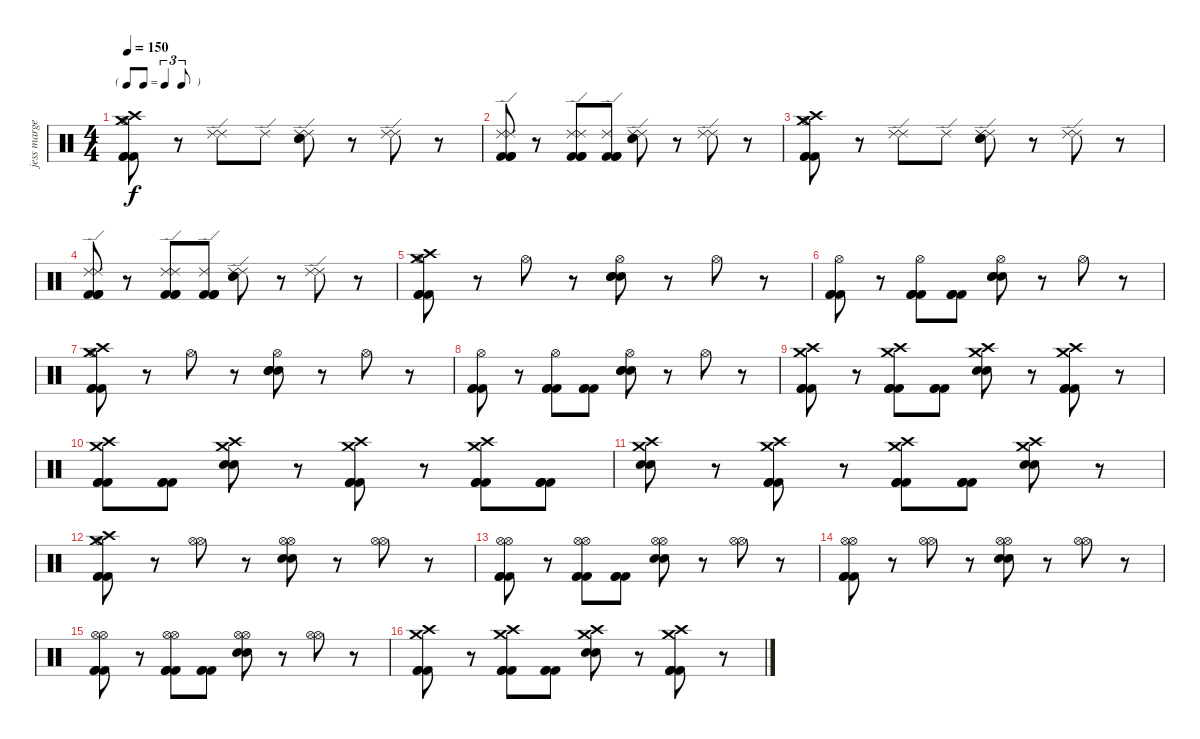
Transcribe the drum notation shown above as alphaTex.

\track ("jess margera" "jess marge") {instrument percussion}
\staff {score}
\articulation defaults
\ts (4 4)
\tf triplet8th
\tempo 150
\clef neutral
\ks c
("Hi-Hat (open)" "Crash high (hit)" "Crash medium (hit)" "Kick (hit) 2" "Kick (hit) 2" "Kick (hit) 2").8{dy f} r.8 ("Ride (edge) 2" "Ride (edge) 2").8 "Ride (edge) 2".8 ("Ride (edge) 2" "Ride (edge) 2" "Electric Snare (hit)" "Electric Snare (hit)").8 r.8 ("Ride (edge) 2" "Ride (edge) 2").8 r.8 |
("Ride (edge) 2" "Ride (edge) 2" "Kick (hit) 2" "Kick (hit) 2" "Kick (hit) 2").8 r.8 ("Ride (edge) 2" "Ride (edge) 2" "Kick (hit) 2" "Kick (hit) 2" "Kick (hit) 2").8 ("Ride (edge) 2" "Kick (hit) 2" "Kick (hit) 2" "Kick (hit) 2").8 ("Ride (edge) 2" "Ride (edge) 2" "Electric Snare (hit)" "Electric Snare (hit)").8 r.8 ("Ride (edge) 2" "Ride (edge) 2").8 r.8 |
("Hi-Hat (open)" "Crash high (hit)" "Crash medium (hit)" "Kick (hit) 2" "Kick (hit) 2" "Kick (hit) 2").8 r.8 ("Ride (edge) 2" "Ride (edge) 2").8 "Ride (edge) 2".8 ("Ride (edge) 2" "Ride (edge) 2" "Electric Snare (hit)" "Electric Snare (hit)").8 r.8 ("Ride (edge) 2" "Ride (edge) 2").8 r.8 |
("Ride (edge) 2" "Ride (edge) 2" "Kick (hit) 2" "Kick (hit) 2" "Kick (hit) 2").8 r.8 ("Ride (edge) 2" "Ride (edge) 2" "Kick (hit) 2" "Kick (hit) 2" "Kick (hit) 2").8 ("Ride (edge) 2" "Kick (hit) 2" "Kick (hit) 2" "Kick (hit) 2").8 ("Ride (edge) 2" "Ride (edge) 2" "Electric Snare (hit)" "Electric Snare (hit)").8 r.8 ("Ride (edge) 2" "Ride (edge) 2").8 r.8 |
("Hi-Hat (open)" "Crash medium (hit)" "Crash high (hit)" "Kick (hit) 2" "Kick (hit) 2" "Kick (hit) 2").8 r.8 "Hi-Hat (open)".8 r.8 ("Hi-Hat (open)" "Electric Snare (hit)" "Electric Snare (hit)" "Electric Snare (hit)").8 r.8 "Hi-Hat (open)".8 r.8 |
("Hi-Hat (open)" "Kick (hit) 2" "Kick (hit) 2" "Kick (hit) 2").8 r.8 ("Hi-Hat (open)" "Kick (hit) 2" "Kick (hit) 2" "Kick (hit) 2").8 ("Kick (hit) 2" "Kick (hit) 2" "Kick (hit) 2").8 ("Hi-Hat (open)" "Electric Snare (hit)" "Electric Snare (hit)" "Electric Snare (hit)").8 r.8 "Hi-Hat (open)".8 r.8 |
("Hi-Hat (open)" "Crash medium (hit)" "Crash high (hit)" "Kick (hit) 2" "Kick (hit) 2" "Kick (hit) 2").8 r.8 "Hi-Hat (open)".8 r.8 ("Hi-Hat (open)" "Electric Snare (hit)" "Electric Snare (hit)" "Electric Snare (hit)").8 r.8 "Hi-Hat (open)".8 r.8 |
("Hi-Hat (open)" "Kick (hit) 2" "Kick (hit) 2" "Kick (hit) 2").8 r.8 ("Hi-Hat (open)" "Kick (hit) 2" "Kick (hit) 2" "Kick (hit) 2").8 ("Kick (hit) 2" "Kick (hit) 2" "Kick (hit) 2").8 ("Hi-Hat (open)" "Electric Snare (hit)" "Electric Snare (hit)" "Electric Snare (hit)").8 r.8 "Hi-Hat (open)".8 r.8 |
("Crash high (hit)" "Crash medium (hit)" "Kick (hit) 2" "Kick (hit) 2" "Kick (hit) 2").8 r.8 ("Crash high (hit)" "Crash medium (hit)" "Kick (hit) 2" "Kick (hit) 2" "Kick (hit) 2").8 ("Kick (hit) 2" "Kick (hit) 2" "Kick (hit) 2").8 ("Crash high (hit)" "Crash medium (hit)" "Electric Snare (hit)" "Electric Snare (hit)").8 r.8 ("Crash high (hit)" "Crash medium (hit)" "Kick (hit) 2" "Kick (hit) 2" "Kick (hit) 2").8 r.8 |
("Crash high (hit)" "Crash medium (hit)" "Kick (hit) 2" "Kick (hit) 2" "Kick (hit) 2").8 ("Kick (hit) 2" "Kick (hit) 2" "Kick (hit) 2").8 ("Crash high (hit)" "Crash medium (hit)" "Electric Snare (hit)" "Electric Snare (hit)").8 r.8 ("Crash high (hit)" "Crash medium (hit)" "Kick (hit) 2" "Kick (hit) 2" "Kick (hit) 2").8 r.8 ("Crash high (hit)" "Crash medium (hit)" "Kick (hit) 2" "Kick (hit) 2" "Kick (hit) 2").8 ("Kick (hit) 2" "Kick (hit) 2" "Kick (hit) 2").8 |
("Crash high (hit)" "Crash medium (hit)" "Electric Snare (hit)" "Electric Snare (hit)").8 r.8 ("Crash high (hit)" "Crash medium (hit)" "Kick (hit) 2" "Kick (hit) 2" "Kick (hit) 2").8 r.8 ("Crash high (hit)" "Crash medium (hit)" "Kick (hit) 2" "Kick (hit) 2" "Kick (hit) 2").8 ("Kick (hit) 2" "Kick (hit) 2" "Kick (hit) 2").8 ("Crash high (hit)" "Crash medium (hit)" "Electric Snare (hit)" "Electric Snare (hit)").8 r.8 |
("Hi-Hat (open)" "Crash high (hit)" "Crash medium (hit)" "Kick (hit) 2" "Kick (hit) 2" "Kick (hit) 2").8 r.8 ("Hi-Hat (open)" "Hi-Hat (open)").8 r.8 ("Hi-Hat (open)" "Hi-Hat (open)" "Electric Snare (hit)" "Electric Snare (hit)").8 r.8 ("Hi-Hat (open)" "Hi-Hat (open)").8 r.8 |
("Hi-Hat (open)" "Hi-Hat (open)" "Kick (hit) 2" "Kick (hit) 2" "Kick (hit) 2").8 r.8 ("Hi-Hat (open)" "Hi-Hat (open)" "Kick (hit) 2" "Kick (hit) 2" "Kick (hit) 2").8 ("Kick (hit) 2" "Kick (hit) 2" "Kick (hit) 2").8 ("Hi-Hat (open)" "Hi-Hat (open)" "Electric Snare (hit)" "Electric Snare (hit)").8 r.8 ("Hi-Hat (open)" "Hi-Hat (open)").8 r.8 |
("Hi-Hat (open)" "Hi-Hat (open)" "Kick (hit) 2" "Kick (hit) 2" "Kick (hit) 2").8 r.8 ("Hi-Hat (open)" "Hi-Hat (open)").8 r.8 ("Hi-Hat (open)" "Hi-Hat (open)" "Electric Snare (hit)" "Electric Snare (hit)").8 r.8 ("Hi-Hat (open)" "Hi-Hat (open)").8 r.8 |
("Hi-Hat (open)" "Hi-Hat (open)" "Kick (hit) 2" "Kick (hit) 2" "Kick (hit) 2").8 r.8 ("Hi-Hat (open)" "Hi-Hat (open)" "Kick (hit) 2" "Kick (hit) 2" "Kick (hit) 2").8 ("Kick (hit) 2" "Kick (hit) 2" "Kick (hit) 2").8 ("Hi-Hat (open)" "Hi-Hat (open)" "Electric Snare (hit)" "Electric Snare (hit)").8 r.8 ("Hi-Hat (open)" "Hi-Hat (open)").8 r.8 |
("Crash high (hit)" "Crash medium (hit)" "Kick (hit) 2" "Kick (hit) 2" "Kick (hit) 2").8 r.8 ("Crash high (hit)" "Crash medium (hit)" "Kick (hit) 2" "Kick (hit) 2" "Kick (hit) 2").8 ("Kick (hit) 2" "Kick (hit) 2" "Kick (hit) 2").8 ("Crash high (hit)" "Crash medium (hit)" "Electric Snare (hit)" "Electric Snare (hit)").8 r.8 ("Crash high (hit)" "Crash medium (hit)" "Kick (hit) 2" "Kick (hit) 2" "Kick (hit) 2").8 r.8
